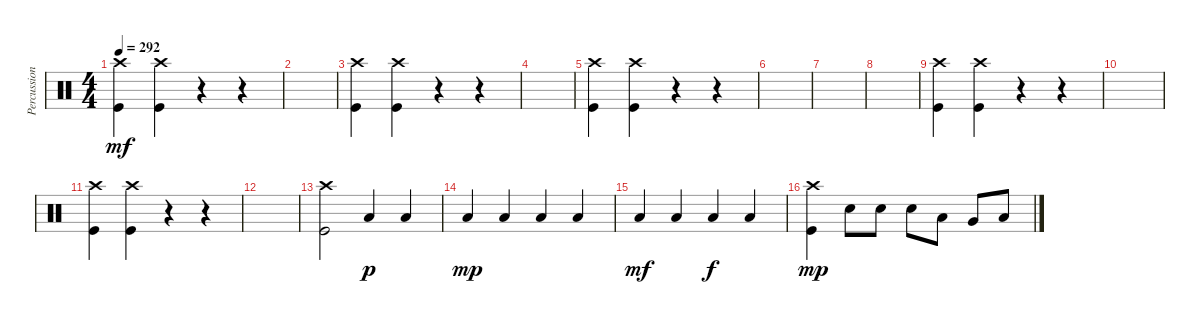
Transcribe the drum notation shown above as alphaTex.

\track ("Percussion" "Percussion") {instrument percussion}
\staff {score}
\articulation defaults
\ts (4 4)
\tempo 292
\clef neutral
\ks c
("Crash high (hit)" "Kick (hit)").4{dy mf} ("Crash high (hit)" "Kick (hit)").4 r.4 r.4 |
|
("Crash high (hit)" "Kick (hit)").4 ("Crash high (hit)" "Kick (hit)").4 r.4 r.4 |
|
("Crash high (hit)" "Kick (hit)").4 ("Crash high (hit)" "Kick (hit)").4 r.4 r.4 |
|
|
|
("Crash high (hit)" "Kick (hit)").4 ("Crash high (hit)" "Kick (hit)").4 r.4 r.4 |
|
("Crash high (hit)" "Kick (hit)").4 ("Crash high (hit)" "Kick (hit)").4 r.4 r.4 |
|
("Crash high (hit)" "Kick (hit)").2 "Low Floor Tom (hit)".4{dy p} "Low Floor Tom (hit)".4 |
"Low Floor Tom (hit)".4{dy mp} "Low Floor Tom (hit)".4 "Low Floor Tom (hit)".4 "Low Floor Tom (hit)".4 |
"Low Floor Tom (hit)".4{dy mf} "Low Floor Tom (hit)".4 "Low Floor Tom (hit)".4{dy f} "Low Floor Tom (hit)".4 |
("Crash high (hit)" "Kick (hit)").4{dy mp} "Electric Snare (hit)".8 "Electric Snare (hit)".8 "Electric Snare (hit)".8 "Low Tom (hit)".8 "Very Low Tom (hit)".8 "Low Floor Tom (hit)".8
